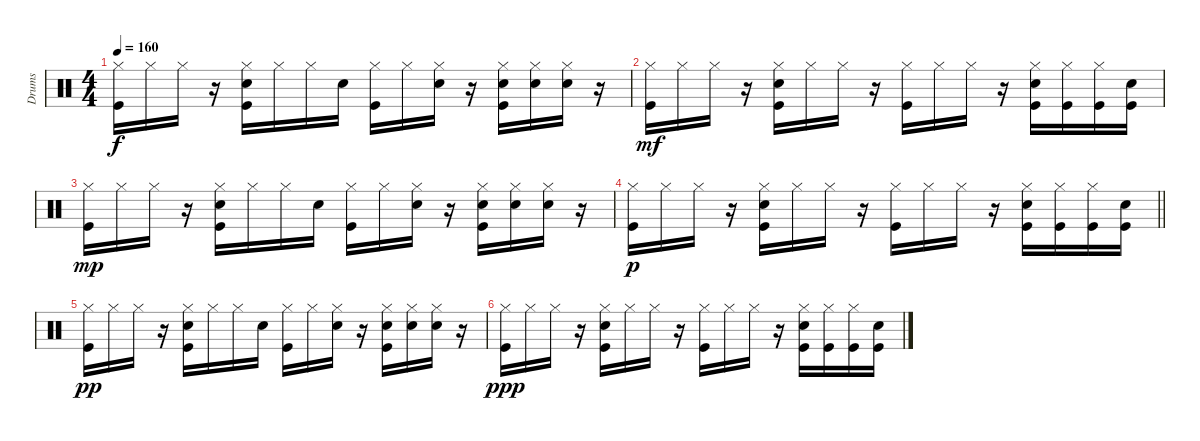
\track ("Drums" "Drums") {instrument percussion}
\staff {score}
\articulation defaults
\ts (4 4)
\tempo 160
\clef neutral
\ks c
("Kick (hit)" "Hi-Hat (closed)").16{dy f} "Hi-Hat (closed)".16 "Hi-Hat (closed)".16 r.16 ("Kick (hit)" "Snare (hit) 2" "Hi-Hat (closed)").16 "Hi-Hat (closed)".16 "Hi-Hat (closed)".16 "Electric Snare (hit)".16 ("Kick (hit)" "Hi-Hat (closed)").16 "Hi-Hat (closed)".16 ("Electric Snare (hit)" "Hi-Hat (closed)").16 r.16 ("Kick (hit)" "Snare (hit) 2" "Hi-Hat (closed)").16 ("Electric Snare (hit)" "Hi-Hat (closed)").16 ("Electric Snare (hit)" "Hi-Hat (closed)").16 r.16 |
("Kick (hit)" "Hi-Hat (closed)").16{dy mf} "Hi-Hat (closed)".16 "Hi-Hat (closed)".16 r.16 ("Kick (hit)" "Snare (hit) 2" "Hi-Hat (closed)").16 "Hi-Hat (closed)".16 "Hi-Hat (closed)".16 r.16 ("Kick (hit)" "Hi-Hat (closed)").16 "Hi-Hat (closed)".16 "Hi-Hat (closed)".16 r.16 ("Kick (hit)" "Snare (hit) 2" "Hi-Hat (closed)").16 ("Kick (hit)" "Hi-Hat (closed)").16 ("Kick (hit)" "Hi-Hat (closed)").16 ("Kick (hit)" "Snare (hit) 2").16 |
("Kick (hit)" "Hi-Hat (closed)").16{dy mp} "Hi-Hat (closed)".16 "Hi-Hat (closed)".16 r.16 ("Kick (hit)" "Snare (hit) 2" "Hi-Hat (closed)").16 "Hi-Hat (closed)".16 "Hi-Hat (closed)".16 "Electric Snare (hit)".16 ("Kick (hit)" "Hi-Hat (closed)").16 "Hi-Hat (closed)".16 ("Electric Snare (hit)" "Hi-Hat (closed)").16 r.16 ("Kick (hit)" "Snare (hit) 2" "Hi-Hat (closed)").16 ("Electric Snare (hit)" "Hi-Hat (closed)").16 ("Electric Snare (hit)" "Hi-Hat (closed)").16 r.16 |
\barLineRight lightlight
("Kick (hit)" "Hi-Hat (closed)").16{dy p} "Hi-Hat (closed)".16 "Hi-Hat (closed)".16 r.16 ("Kick (hit)" "Snare (hit) 2" "Hi-Hat (closed)").16 "Hi-Hat (closed)".16 "Hi-Hat (closed)".16 r.16 ("Kick (hit)" "Hi-Hat (closed)").16 "Hi-Hat (closed)".16 "Hi-Hat (closed)".16 r.16 ("Kick (hit)" "Snare (hit) 2" "Hi-Hat (closed)").16 ("Kick (hit)" "Hi-Hat (closed)").16 ("Kick (hit)" "Hi-Hat (closed)").16 ("Kick (hit)" "Snare (hit) 2").16 |
("Kick (hit)" "Hi-Hat (closed)").16{dy pp} "Hi-Hat (closed)".16 "Hi-Hat (closed)".16 r.16 ("Kick (hit)" "Snare (hit) 2" "Hi-Hat (closed)").16 "Hi-Hat (closed)".16 "Hi-Hat (closed)".16 "Electric Snare (hit)".16 ("Kick (hit)" "Hi-Hat (closed)").16 "Hi-Hat (closed)".16 ("Electric Snare (hit)" "Hi-Hat (closed)").16 r.16 ("Kick (hit)" "Snare (hit) 2" "Hi-Hat (closed)").16 ("Electric Snare (hit)" "Hi-Hat (closed)").16 ("Electric Snare (hit)" "Hi-Hat (closed)").16 r.16 |
("Kick (hit)" "Hi-Hat (closed)").16{dy ppp} "Hi-Hat (closed)".16 "Hi-Hat (closed)".16 r.16 ("Kick (hit)" "Snare (hit) 2" "Hi-Hat (closed)").16 "Hi-Hat (closed)".16 "Hi-Hat (closed)".16 r.16 ("Kick (hit)" "Hi-Hat (closed)").16 "Hi-Hat (closed)".16 "Hi-Hat (closed)".16 r.16 ("Kick (hit)" "Snare (hit) 2" "Hi-Hat (closed)").16 ("Kick (hit)" "Hi-Hat (closed)").16 ("Kick (hit)" "Hi-Hat (closed)").16 ("Kick (hit)" "Snare (hit) 2").16
